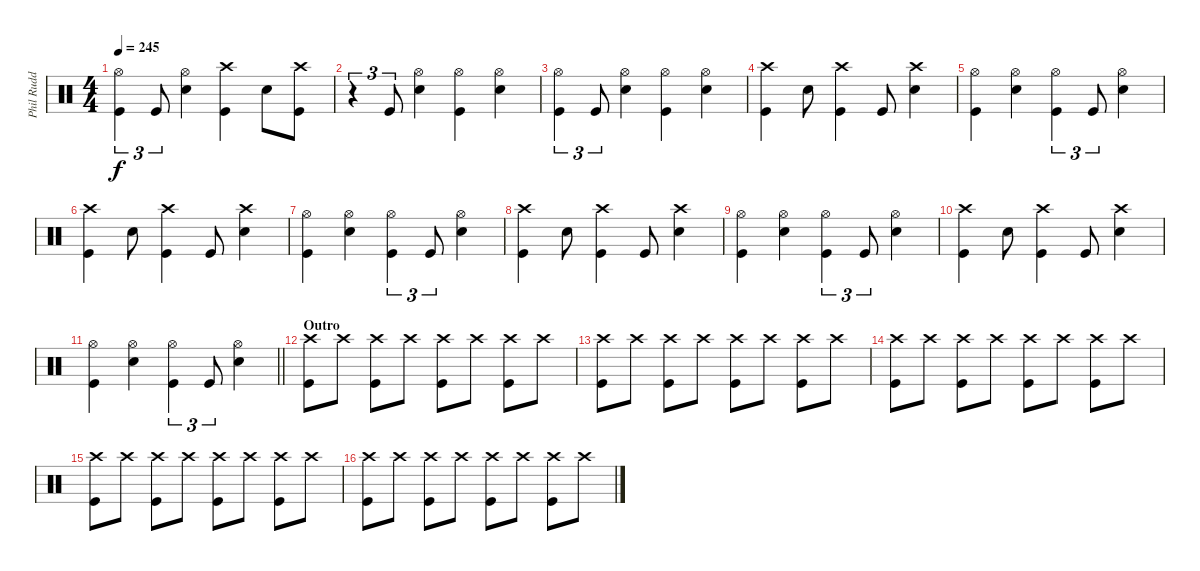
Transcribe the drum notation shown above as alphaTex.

\track ("Phil Rudd" "Phil Rudd") {instrument percussion}
\staff {score}
\articulation defaults
\ts (4 4)
\tempo 245
\clef neutral
\ks c
("Hi-Hat (open)" "Kick (hit)").4{tu (3 2) dy f} "Kick (hit)".8{tu (3 2)} ("Hi-Hat (open)" "Snare (hit) 2").4 ("Crash high (hit)" "Kick (hit)").4 "Snare (hit) 2".8 ("Crash high (hit)" "Kick (hit)").8 |
r.4{tu (3 2)} "Kick (hit)".8{tu (3 2)} ("Hi-Hat (open)" "Snare (hit) 2").4 ("Hi-Hat (open)" "Kick (hit)").4 ("Hi-Hat (open)" "Snare (hit) 2").4 |
("Hi-Hat (open)" "Kick (hit)").4{tu (3 2)} "Kick (hit)".8{tu (3 2)} ("Hi-Hat (open)" "Snare (hit) 2").4 ("Hi-Hat (open)" "Kick (hit)").4 ("Hi-Hat (open)" "Snare (hit) 2").4 |
("Crash high (hit)" "Kick (hit)").4 "Snare (hit) 2".8 ("Crash high (hit)" "Kick (hit)").4 "Kick (hit)".8 ("Crash high (hit)" "Snare (hit) 2").4 |
("Hi-Hat (open)" "Kick (hit)").4 ("Hi-Hat (open)" "Snare (hit) 2").4 ("Hi-Hat (open)" "Kick (hit)").4{tu (3 2)} "Kick (hit)".8{tu (3 2)} ("Hi-Hat (open)" "Snare (hit) 2").4 |
("Crash high (hit)" "Kick (hit)").4 "Snare (hit) 2".8 ("Crash high (hit)" "Kick (hit)").4 "Kick (hit)".8 ("Crash high (hit)" "Snare (hit) 2").4 |
("Hi-Hat (open)" "Kick (hit)").4 ("Hi-Hat (open)" "Snare (hit) 2").4 ("Hi-Hat (open)" "Kick (hit)").4{tu (3 2)} "Kick (hit)".8{tu (3 2)} ("Hi-Hat (open)" "Snare (hit) 2").4 |
("Crash high (hit)" "Kick (hit)").4 "Snare (hit) 2".8 ("Crash high (hit)" "Kick (hit)").4 "Kick (hit)".8 ("Crash high (hit)" "Snare (hit) 2").4 |
("Hi-Hat (open)" "Kick (hit)").4 ("Hi-Hat (open)" "Snare (hit) 2").4 ("Hi-Hat (open)" "Kick (hit)").4{tu (3 2)} "Kick (hit)".8{tu (3 2)} ("Hi-Hat (open)" "Snare (hit) 2").4 |
("Crash high (hit)" "Kick (hit)").4 "Snare (hit) 2".8 ("Crash high (hit)" "Kick (hit)").4 "Kick (hit)".8 ("Crash high (hit)" "Snare (hit) 2").4 |
\barLineRight lightlight
("Hi-Hat (open)" "Kick (hit)").4 ("Hi-Hat (open)" "Snare (hit) 2").4 ("Hi-Hat (open)" "Kick (hit)").4{tu (3 2)} "Kick (hit)".8{tu (3 2)} ("Hi-Hat (open)" "Snare (hit) 2").4 |
\section ("" "Outro")
("Crash high (hit)" "Kick (hit)").8 "Crash high (hit)".8 ("Crash high (hit)" "Kick (hit)").8 "Crash high (hit)".8 ("Crash high (hit)" "Kick (hit)").8 "Crash high (hit)".8 ("Crash high (hit)" "Kick (hit)").8 "Crash high (hit)".8 |
("Crash high (hit)" "Kick (hit)").8 "Crash high (hit)".8 ("Crash high (hit)" "Kick (hit)").8 "Crash high (hit)".8 ("Crash high (hit)" "Kick (hit)").8 "Crash high (hit)".8 ("Crash high (hit)" "Kick (hit)").8 "Crash high (hit)".8 |
("Crash high (hit)" "Kick (hit)").8 "Crash high (hit)".8 ("Crash high (hit)" "Kick (hit)").8 "Crash high (hit)".8 ("Crash high (hit)" "Kick (hit)").8 "Crash high (hit)".8 ("Crash high (hit)" "Kick (hit)").8 "Crash high (hit)".8 |
("Crash high (hit)" "Kick (hit)").8 "Crash high (hit)".8 ("Crash high (hit)" "Kick (hit)").8 "Crash high (hit)".8 ("Crash high (hit)" "Kick (hit)").8 "Crash high (hit)".8 ("Crash high (hit)" "Kick (hit)").8 "Crash high (hit)".8 |
("Crash high (hit)" "Kick (hit)").8 "Crash high (hit)".8 ("Crash high (hit)" "Kick (hit)").8 "Crash high (hit)".8 ("Crash high (hit)" "Kick (hit)").8 "Crash high (hit)".8 ("Crash high (hit)" "Kick (hit)").8 "Crash high (hit)".8
